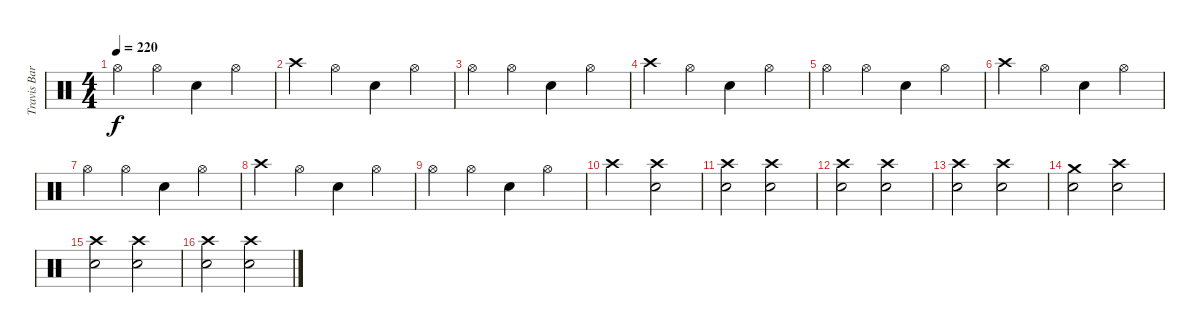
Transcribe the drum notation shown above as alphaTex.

\track ("Travis Barker" "Travis Bar") {instrument percussion}
\staff {score}
\articulation defaults
\ts (4 4)
\tempo 220
\clef neutral
\ks c "Hi-Hat (open)".4{dy f} "Hi-Hat (open)".4 "Snare (hit) 2".4 "Hi-Hat (open)".4
|
"Crash high (hit)".4 "Hi-Hat (open)".4 "Snare (hit) 2".4 "Hi-Hat (open)".4 |
"Hi-Hat (open)".4 "Hi-Hat (open)".4 "Snare (hit) 2".4 "Hi-Hat (open)".4 |
"Crash high (hit)".4 "Hi-Hat (open)".4 "Snare (hit) 2".4 "Hi-Hat (open)".4 |
"Hi-Hat (open)".4 "Hi-Hat (open)".4 "Snare (hit) 2".4 "Hi-Hat (open)".4 |
"Crash high (hit)".4 "Hi-Hat (open)".4 "Snare (hit) 2".4 "Hi-Hat (open)".4 |
"Hi-Hat (open)".4 "Hi-Hat (open)".4 "Snare (hit) 2".4 "Hi-Hat (open)".4 |
"Crash high (hit)".4 "Hi-Hat (open)".4 "Snare (hit) 2".4 "Hi-Hat (open)".4 |
"Hi-Hat (open)".4 "Hi-Hat (open)".4 "Snare (hit) 2".4 "Hi-Hat (open)".4 |
"Crash high (hit)".2 ("Crash high (hit)" "Snare (hit) 2").2 |
("Crash high (hit)" "Snare (hit) 2").2 ("Crash high (hit)" "Snare (hit) 2").2 |
("Crash high (hit)" "Snare (hit) 2").2 ("Crash high (hit)" "Snare (hit) 2").2 |
("Crash high (hit)" "Snare (hit) 2").2 ("Crash high (hit)" "Snare (hit) 2").2 |
("Crash medium (hit)" "Snare (hit) 2").2 ("Crash high (hit)" "Snare (hit) 2").2 |
("Crash high (hit)" "Snare (hit) 2").2 ("Crash high (hit)" "Snare (hit) 2").2 |
("Crash high (hit)" "Snare (hit) 2").2 ("Crash high (hit)" "Snare (hit) 2").2
